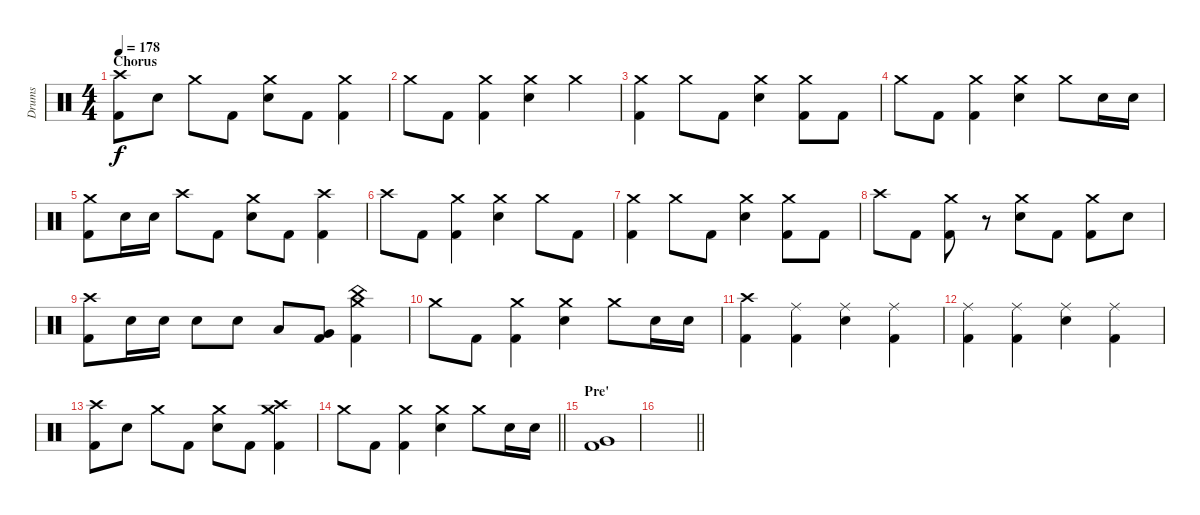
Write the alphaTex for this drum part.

\track ("Drums" "Drums") {instrument percussion}
\staff {score}
\articulation defaults
\ts (4 4)
\section ("" "Chorus")
\tempo 178
\clef neutral
\ks c
("Crash high (hit)" "Kick (hit) 2").8{dy f} "Electric Snare (hit)".8 "Crash medium (hit)".8 "Kick (hit) 2".8 ("Crash medium (hit)" "Electric Snare (hit)").8 "Kick (hit) 2".8 ("Crash medium (hit)" "Kick (hit) 2").4 |
"Crash medium (hit)".8 "Kick (hit) 2".8 ("Crash medium (hit)" "Kick (hit) 2").4 ("Crash medium (hit)" "Electric Snare (hit)").4 "Crash medium (hit)".4 |
("Crash medium (hit)" "Kick (hit) 2").4 "Crash medium (hit)".8 "Kick (hit) 2".8 ("Crash medium (hit)" "Electric Snare (hit)").4 ("Crash medium (hit)" "Kick (hit) 2").8 "Kick (hit) 2".8 |
"Crash medium (hit)".8 "Kick (hit) 2".8 ("Crash medium (hit)" "Kick (hit) 2").4 ("Crash medium (hit)" "Electric Snare (hit)").4 "Crash medium (hit)".8 "Electric Snare (hit)".16 "Electric Snare (hit)".16 |
("Crash medium (hit)" "Kick (hit) 2").8 "Electric Snare (hit)".16 "Electric Snare (hit)".16 "Crash high (hit)".8 "Kick (hit) 2".8 ("Crash medium (hit)" "Electric Snare (hit)").8 "Kick (hit) 2".8 ("Crash high (hit)" "Kick (hit) 2").4 |
"Crash high (hit)".8 "Kick (hit) 2".8 ("Crash medium (hit)" "Kick (hit) 2").4 ("Crash medium (hit)" "Electric Snare (hit)").4 "Crash medium (hit)".8 "Kick (hit) 2".8 |
("Crash medium (hit)" "Kick (hit) 2").4 "Crash medium (hit)".8 "Kick (hit) 2".8 ("Crash medium (hit)" "Electric Snare (hit)").4 ("Crash medium (hit)" "Kick (hit) 2").8 "Kick (hit) 2".8 |
"Crash high (hit)".8 "Kick (hit) 2".8 ("Crash medium (hit)" "Kick (hit) 2").8 r.8 ("Crash medium (hit)" "Electric Snare (hit)").8 "Kick (hit) 2".8 ("Crash medium (hit)" "Kick (hit) 2").8 "Electric Snare (hit)".8 |
("Crash high (hit)" "Kick (hit) 2").8 "Electric Snare (hit)".16 "Electric Snare (hit)".16 "Electric Snare (hit)".8 "Electric Snare (hit)".8 "Low Tom (hit)".8 ("Very Low Tom (hit)" "Kick (hit) 2").8 ("China (hit)" "Crash medium (hit)" "Kick (hit) 2").4 |
"Crash medium (hit)".8 "Kick (hit) 2".8 ("Crash medium (hit)" "Kick (hit) 2").4 ("Crash medium (hit)" "Electric Snare (hit)").4 "Crash medium (hit)".8 "Electric Snare (hit)".16 "Electric Snare (hit)".16 |
("Crash high (hit)" "Kick (hit) 2").4 ("Ride (middle)" "Kick (hit) 2").4 ("Ride (middle)" "Electric Snare (hit)").4 ("Ride (middle)" "Kick (hit) 2").4 |
("Ride (middle)" "Kick (hit) 2").4 ("Ride (middle)" "Kick (hit) 2").4 ("Ride (middle)" "Electric Snare (hit)").4 ("Ride (middle)" "Kick (hit) 2").4 |
("Crash high (hit)" "Kick (hit) 2").8 "Electric Snare (hit)".8 "Crash medium (hit)".8 "Kick (hit) 2".8 ("Crash medium (hit)" "Electric Snare (hit)").8 "Kick (hit) 2".8 ("Crash high (hit)" "Crash medium (hit)" "Kick (hit) 2").4 |
\barLineRight lightlight "Crash medium (hit)".8 "Kick (hit) 2".8
("Crash medium (hit)" "Kick (hit) 2").4 ("Crash medium (hit)" "Electric Snare (hit)").4 "Crash medium (hit)".8 "Electric Snare (hit)".16 "Electric Snare (hit)".16 |
\section ("" "Pre'")
("Very Low Tom (hit)" "Kick (hit) 2").1 |
\barLineRight lightlight
